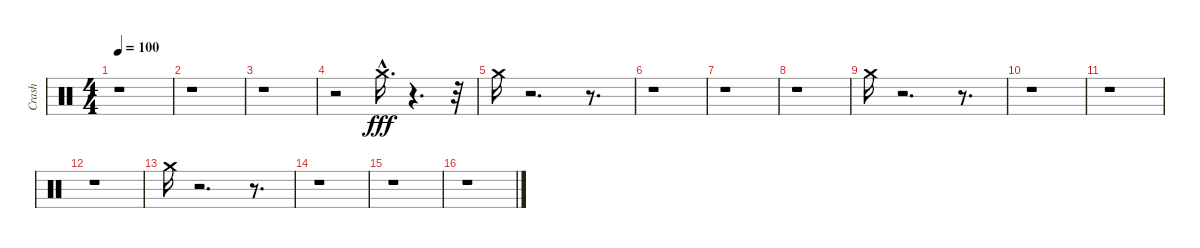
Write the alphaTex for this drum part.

\track ("Crash" "Crash") {instrument percussion}
\staff {score}
\articulation defaults
\ts (4 4)
\tempo 100
\clef neutral
\ks c
r.1{dy fff} |
r.1 |
r.1 |
r.2 "Crash medium (hit)"{hac}.16{d} r.4{d} r.32 |
"Crash medium (hit)".16 r.2{d} r.8{d} |
r.1 |
r.1 |
r.1 |
"Crash medium (hit)".16 r.2{d} r.8{d} |
r.1 |
r.1 |
r.1 |
"Crash medium (hit)".16 r.2{d} r.8{d} |
r.1 |
r.1 |
r.1
